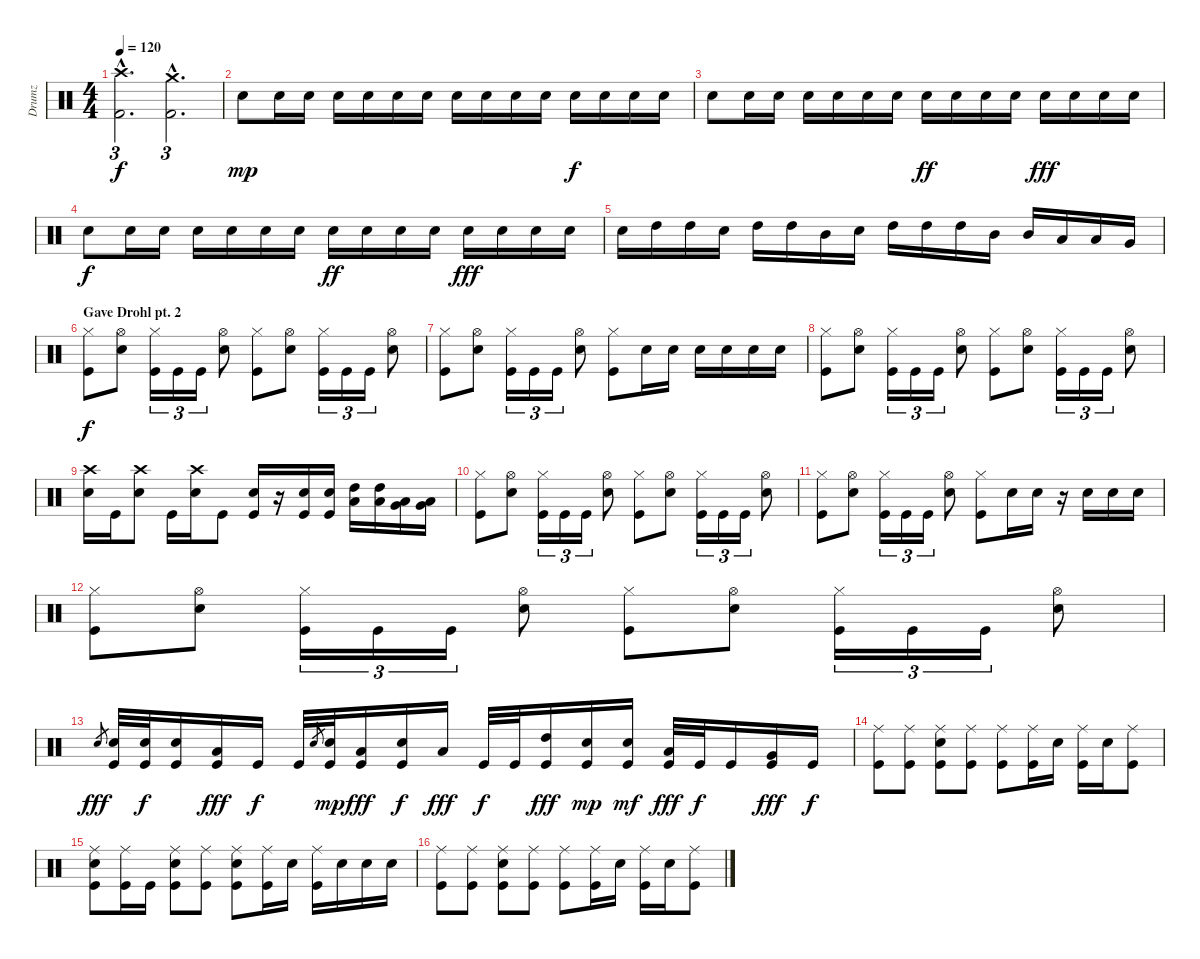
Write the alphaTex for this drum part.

\track ("Drumz" "Drumz") {instrument percussion}
\staff {score}
\articulation defaults
\ts (4 4)
\tempo 120
\clef neutral
\ks c
("Crash high (hit)"{hac} "Kick (hit) 2"{hac}).2{d tu (3 2) dy f} ("Crash medium (hit)"{hac} "Kick (hit) 2"{hac}).2{d tu (3 2)} |
"Electric Snare (hit)".8{dy mp} "Electric Snare (hit)".16 "Electric Snare (hit)".16 "Electric Snare (hit)".16 "Electric Snare (hit)".16 "Electric Snare (hit)".16 "Electric Snare (hit)".16 "Electric Snare (hit)".16 "Electric Snare (hit)".16 "Electric Snare (hit)".16 "Electric Snare (hit)".16 "Electric Snare (hit)".16{dy f} "Electric Snare (hit)".16 "Electric Snare (hit)".16 "Electric Snare (hit)".16 |
"Electric Snare (hit)".8 "Electric Snare (hit)".16 "Electric Snare (hit)".16 "Electric Snare (hit)".16 "Electric Snare (hit)".16 "Electric Snare (hit)".16 "Electric Snare (hit)".16 "Electric Snare (hit)".16{dy ff} "Electric Snare (hit)".16 "Electric Snare (hit)".16 "Electric Snare (hit)".16 "Electric Snare (hit)".16{dy fff} "Electric Snare (hit)".16 "Electric Snare (hit)".16 "Electric Snare (hit)".16 |
"Electric Snare (hit)".8{dy f} "Electric Snare (hit)".16 "Electric Snare (hit)".16 "Electric Snare (hit)".16 "Electric Snare (hit)".16 "Electric Snare (hit)".16 "Electric Snare (hit)".16 "Electric Snare (hit)".16{dy ff} "Electric Snare (hit)".16 "Electric Snare (hit)".16 "Electric Snare (hit)".16 "Electric Snare (hit)".16{dy fff} "Electric Snare (hit)".16 "Electric Snare (hit)".16 "Electric Snare (hit)".16 |
"Electric Snare (hit)".16 "High Tom (hit)".16 "High Tom (hit)".16 "Electric Snare (hit)".16 "High Tom (hit)".16 "High Tom (hit)".16 "Mid Tom (hit)".16 "Electric Snare (hit)".16 "High Tom (hit)".16 "High Tom (hit)".16 "High Tom (hit)".16 "Mid Tom (hit)".16 "Mid Tom (hit)".16 "Low Tom (hit)".16 "Low Tom (hit)".16 "Very Low Tom (hit)".16 |
\section ("" "Gave Drohl pt. 2")
("Hi-Hat (closed)" "Kick (hit)").8{dy f} ("Hi-Hat (open)" "Electric Snare (hit)").8 ("Hi-Hat (closed)" "Kick (hit)").16{tu (3 2)} "Kick (hit)".16{tu (3 2)} "Kick (hit)".16{tu (3 2)} ("Hi-Hat (open)" "Electric Snare (hit)").8 ("Hi-Hat (closed)" "Kick (hit)").8 ("Hi-Hat (open)" "Electric Snare (hit)").8 ("Hi-Hat (closed)" "Kick (hit)").16{tu (3 2)} "Kick (hit)".16{tu (3 2)} "Kick (hit)".16{tu (3 2)} ("Hi-Hat (open)" "Electric Snare (hit)").8 |
("Hi-Hat (closed)" "Kick (hit)").8 ("Hi-Hat (open)" "Electric Snare (hit)").8 ("Hi-Hat (closed)" "Kick (hit)").16{tu (3 2)} "Kick (hit)".16{tu (3 2)} "Kick (hit)".16{tu (3 2)} ("Hi-Hat (open)" "Electric Snare (hit)").8 ("Hi-Hat (closed)" "Kick (hit)").8 "Electric Snare (hit)".16 "Electric Snare (hit)".16 "Electric Snare (hit)".16 "Electric Snare (hit)".16 "Electric Snare (hit)".16 "Electric Snare (hit)".16 |
("Hi-Hat (closed)" "Kick (hit)").8 ("Hi-Hat (open)" "Electric Snare (hit)").8 ("Hi-Hat (closed)" "Kick (hit)").16{tu (3 2)} "Kick (hit)".16{tu (3 2)} "Kick (hit)".16{tu (3 2)} ("Hi-Hat (open)" "Electric Snare (hit)").8 ("Hi-Hat (closed)" "Kick (hit)").8 ("Hi-Hat (open)" "Electric Snare (hit)").8 ("Hi-Hat (closed)" "Kick (hit)").16{tu (3 2)} "Kick (hit)".16{tu (3 2)} "Kick (hit)".16{tu (3 2)} ("Hi-Hat (open)" "Electric Snare (hit)").8 |
("Crash high (hit)" "Electric Snare (hit)").16 "Kick (hit)".16 ("Crash high (hit)" "Electric Snare (hit)").8 "Kick (hit)".16 ("Crash high (hit)" "Electric Snare (hit)").16 "Kick (hit)".8 ("Electric Snare (hit)" "Kick (hit)").16 r.16 ("Electric Snare (hit)" "Kick (hit)").16 ("Electric Snare (hit)" "Kick (hit)").16 ("High Tom (hit)" "Low Tom (hit)").16 ("High Tom (hit)" "Low Tom (hit)").16 ("Low Tom (hit)" "Very Low Tom (hit)").16 ("Low Tom (hit)" "Very Low Tom (hit)").16 |
("Hi-Hat (closed)" "Kick (hit)").8 ("Hi-Hat (open)" "Electric Snare (hit)").8 ("Hi-Hat (closed)" "Kick (hit)").16{tu (3 2)} "Kick (hit)".16{tu (3 2)} "Kick (hit)".16{tu (3 2)} ("Hi-Hat (open)" "Electric Snare (hit)").8 ("Hi-Hat (closed)" "Kick (hit)").8 ("Hi-Hat (open)" "Electric Snare (hit)").8 ("Hi-Hat (closed)" "Kick (hit)").16{tu (3 2)} "Kick (hit)".16{tu (3 2)} "Kick (hit)".16{tu (3 2)} ("Hi-Hat (open)" "Electric Snare (hit)").8 |
("Hi-Hat (closed)" "Kick (hit)").8 ("Hi-Hat (open)" "Electric Snare (hit)").8 ("Hi-Hat (closed)" "Kick (hit)").16{tu (3 2)} "Kick (hit)".16{tu (3 2)} "Kick (hit)".16{tu (3 2)} ("Hi-Hat (open)" "Electric Snare (hit)").8 ("Hi-Hat (closed)" "Kick (hit)").8 "Electric Snare (hit)".16 "Electric Snare (hit)".16 r.16 "Electric Snare (hit)".16 "Electric Snare (hit)".16 "Electric Snare (hit)".16 |
("Hi-Hat (closed)" "Kick (hit)").8 ("Hi-Hat (open)" "Electric Snare (hit)").8 ("Hi-Hat (closed)" "Kick (hit)").16{tu (3 2)} "Kick (hit)".16{tu (3 2)} "Kick (hit)".16{tu (3 2)} ("Hi-Hat (open)" "Electric Snare (hit)").8 ("Hi-Hat (closed)" "Kick (hit)").8 ("Hi-Hat (open)" "Electric Snare (hit)").8 ("Hi-Hat (closed)" "Kick (hit)").16{tu (3 2)} "Kick (hit)".16{tu (3 2)} "Kick (hit)".16{tu (3 2)} ("Hi-Hat (open)" "Electric Snare (hit)").8 |
"Electric Snare (hit)".8{gr dy fff} ("Electric Snare (hit)" "Kick (hit)").32 ("Electric Snare (hit)" "Kick (hit)").32{dy f} ("Electric Snare (hit)" "Kick (hit)").16 ("Low Tom (hit)" "Kick (hit)").16{dy fff} "Kick (hit)".16{dy f} "Kick (hit)".32 "Electric Snare (hit)".8{gr} ("Electric Snare (hit)" "Kick (hit)").32{dy mp} ("Low Tom (hit)" "Kick (hit)").16{dy fff} ("Electric Snare (hit)" "Kick (hit)").16{dy f} "Low Tom (hit)".16{dy fff} "Kick (hit)".32{dy f} "Kick (hit)".32 ("High Tom (hit)" "Kick (hit)").16{dy fff} ("Electric Snare (hit)" "Kick (hit)").16{dy mp} ("Electric Snare (hit)" "Kick (hit)").16{dy mf} ("Low Tom (hit)" "Kick (hit)").32{dy fff} "Kick (hit)".32{dy f} "Kick (hit)".16 ("Very Low Tom (hit)" "Kick (hit)").16{dy fff} "Kick (hit)".16{dy f} |
("Ride (middle)" "Kick (hit)").8{volume 16} ("Ride (middle)" "Kick (hit)").8 ("Ride (middle)" "Electric Snare (hit)" "Kick (hit)").8 ("Ride (middle)" "Kick (hit)").8 ("Ride (middle)" "Kick (hit)").8 ("Ride (middle)" "Kick (hit)").16 "Electric Snare (hit)".16 ("Ride (middle)" "Kick (hit)").16 "Electric Snare (hit)".16 ("Ride (middle)" "Kick (hit)").8 |
("Ride (middle)" "Electric Snare (hit)" "Kick (hit)").8 ("Ride (middle)" "Kick (hit)").16 "Kick (hit)".16 ("Ride (middle)" "Electric Snare (hit)" "Kick (hit)").8 ("Ride (middle)" "Kick (hit)").8 ("Ride (middle)" "Electric Snare (hit)" "Kick (hit)").8 ("Ride (middle)" "Kick (hit)").16 "Electric Snare (hit)".16 ("Ride (middle)" "Kick (hit)").16 "Electric Snare (hit)".16 "Electric Snare (hit)".16 "Electric Snare (hit)".16 |
("Ride (middle)" "Kick (hit)").8 ("Ride (middle)" "Kick (hit)").8 ("Ride (middle)" "Electric Snare (hit)" "Kick (hit)").8 ("Ride (middle)" "Kick (hit)").8 ("Ride (middle)" "Kick (hit)").8 ("Ride (middle)" "Kick (hit)").16 "Electric Snare (hit)".16 ("Ride (middle)" "Kick (hit)").16 "Electric Snare (hit)".16 ("Ride (middle)" "Kick (hit)").8
